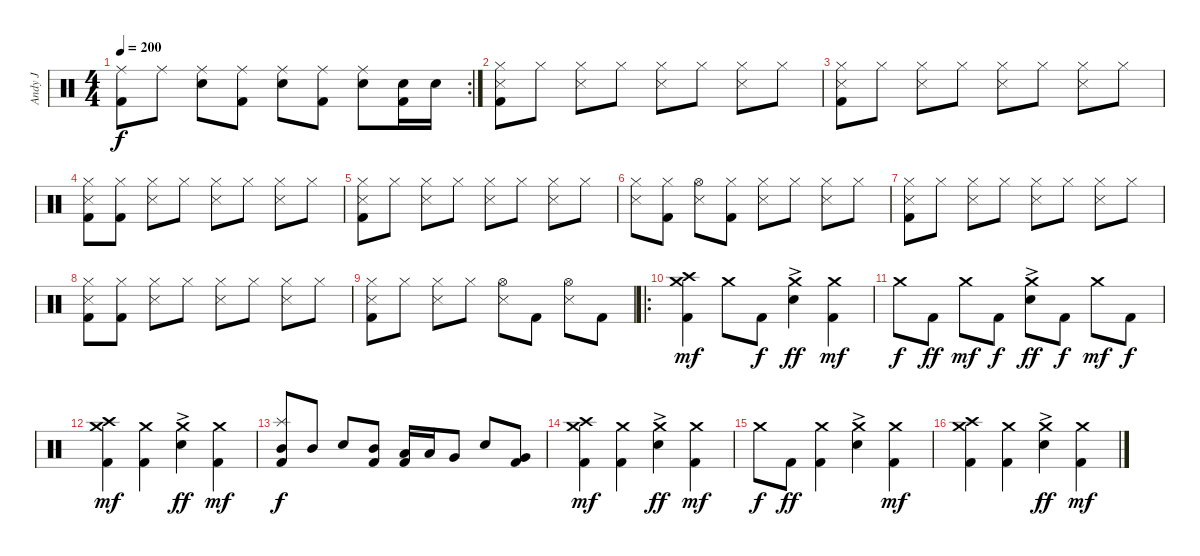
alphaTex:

\track ("Andy J" "Andy J") {instrument percussion}
\staff {score}
\articulation defaults
\rc 2
\ts (4 4)
\tempo 200
\clef neutral
\ks c
("Ride (middle)" "Kick (hit) 2").8{dy f} "Ride (middle)".8 ("Ride (middle)" "Electric Snare (hit)").8 ("Ride (middle)" "Kick (hit) 2").8 ("Ride (middle)" "Electric Snare (hit)").8 ("Ride (middle)" "Kick (hit) 2").8 ("Ride (middle)" "Electric Snare (hit)").8 ("Electric Snare (hit)" "Kick (hit) 2").16 "Electric Snare (hit)".16 |
("Hi-Hat (closed)" "Snare (side stick) 3" "Kick (hit) 2").8 "Hi-Hat (closed)".8 ("Hi-Hat (closed)" "Snare (side stick) 3").8 "Hi-Hat (closed)".8 ("Hi-Hat (closed)" "Snare (side stick) 3").8 "Hi-Hat (closed)".8 ("Hi-Hat (closed)" "Snare (side stick) 3").8 "Hi-Hat (closed)".8 |
("Hi-Hat (closed)" "Snare (side stick) 3" "Kick (hit) 2").8 "Hi-Hat (closed)".8 ("Hi-Hat (closed)" "Snare (side stick) 3").8 "Hi-Hat (closed)".8 ("Hi-Hat (closed)" "Snare (side stick) 3").8 "Hi-Hat (closed)".8 ("Hi-Hat (closed)" "Snare (side stick) 3").8 "Hi-Hat (closed)".8 |
("Hi-Hat (closed)" "Snare (side stick) 3" "Kick (hit) 2").8 ("Hi-Hat (closed)" "Kick (hit) 2").8 ("Hi-Hat (closed)" "Snare (side stick) 3").8 "Hi-Hat (closed)".8 ("Hi-Hat (closed)" "Snare (side stick) 3").8 "Hi-Hat (closed)".8 ("Hi-Hat (closed)" "Snare (side stick) 3").8 "Hi-Hat (closed)".8 |
("Hi-Hat (closed)" "Snare (side stick) 3" "Kick (hit) 2").8 "Hi-Hat (closed)".8 ("Hi-Hat (closed)" "Snare (side stick) 3").8 "Hi-Hat (closed)".8 ("Hi-Hat (closed)" "Snare (side stick) 3").8 "Hi-Hat (closed)".8 ("Hi-Hat (closed)" "Snare (side stick) 3").8 "Hi-Hat (closed)".8 |
("Hi-Hat (closed)" "Snare (side stick) 3").8 ("Hi-Hat (closed)" "Kick (hit) 2").8 ("Hi-Hat (open)" "Snare (side stick) 3").8 ("Hi-Hat (closed)" "Kick (hit) 2").8 ("Hi-Hat (closed)" "Snare (side stick) 3").8 "Hi-Hat (closed)".8 ("Hi-Hat (closed)" "Snare (side stick) 3").8 "Hi-Hat (closed)".8 |
("Hi-Hat (closed)" "Snare (side stick) 3" "Kick (hit) 2").8 "Hi-Hat (closed)".8 ("Hi-Hat (closed)" "Snare (side stick) 3").8 "Hi-Hat (closed)".8 ("Hi-Hat (closed)" "Snare (side stick) 3").8 "Hi-Hat (closed)".8 ("Hi-Hat (closed)" "Snare (side stick) 3").8 "Hi-Hat (closed)".8 |
("Hi-Hat (closed)" "Snare (side stick) 3" "Kick (hit) 2").8 ("Hi-Hat (closed)" "Kick (hit) 2").8 ("Hi-Hat (closed)" "Snare (side stick) 3").8 "Hi-Hat (closed)".8 ("Hi-Hat (closed)" "Snare (side stick) 3").8 "Hi-Hat (closed)".8 ("Hi-Hat (closed)" "Snare (side stick) 3").8 "Hi-Hat (closed)".8 |
("Hi-Hat (closed)" "Snare (side stick) 3" "Kick (hit) 2").8 "Hi-Hat (closed)".8 ("Hi-Hat (closed)" "Snare (side stick) 3").8 "Hi-Hat (closed)".8 ("Hi-Hat (open)" "Snare (side stick) 3").8 "Kick (hit) 2".8 ("Hi-Hat (open)" "Snare (side stick) 3").8 "Kick (hit) 2".8 |
\ro
("Crash high (hit)" "Crash medium (hit)" "Kick (hit) 2").4{dy mf} "Crash medium (hit)".8 "Kick (hit) 2".8{dy f} ("Crash medium (hit)" "Electric Snare (hit)"{ac}).4{dy ff} ("Crash medium (hit)" "Kick (hit) 2").4{dy mf} |
"Crash medium (hit)".8{dy f} "Kick (hit) 2".8{dy ff} "Crash medium (hit)".8{dy mf} "Kick (hit) 2".8{dy f} ("Crash medium (hit)" "Electric Snare (hit)"{ac}).8{dy ff} "Kick (hit) 2".8{dy f} "Crash medium (hit)".8{dy mf} "Kick (hit) 2".8{dy f} |
("Crash high (hit)" "Crash medium (hit)" "Kick (hit) 2").4{dy mf} ("Crash medium (hit)" "Kick (hit) 2").4 ("Crash medium (hit)" "Electric Snare (hit)"{ac}).4{dy ff} ("Crash medium (hit)" "Kick (hit) 2").4{dy mf} |
("Splash (hit)" "Mid Tom (hit)" "Kick (hit) 2").8{dy f} "Mid Tom (hit)".8 "Electric Snare (hit)".8 ("Mid Tom (hit)" "Kick (hit) 2").8 ("Low Tom (hit)" "Kick (hit) 2").16 "Low Tom (hit)".16 "Very Low Tom (hit)".8 "Electric Snare (hit)".8 ("Very Low Tom (hit)" "Kick (hit) 2").8 |
("Crash high (hit)" "Crash medium (hit)" "Kick (hit) 2").4{dy mf} ("Crash medium (hit)" "Kick (hit) 2").4 ("Crash medium (hit)" "Electric Snare (hit)"{ac}).4{dy ff} ("Crash medium (hit)" "Kick (hit) 2").4{dy mf} |
"Crash medium (hit)".8{dy f} "Kick (hit) 2".8{dy ff} ("Crash medium (hit)" "Kick (hit) 2").4 ("Crash medium (hit)" "Electric Snare (hit)"{ac}).4 ("Crash medium (hit)" "Kick (hit) 2").4{dy mf} |
("Crash high (hit)" "Crash medium (hit)" "Kick (hit) 2").4 ("Crash medium (hit)" "Kick (hit) 2").4 ("Crash medium (hit)" "Electric Snare (hit)"{ac}).4{dy ff} ("Crash medium (hit)" "Kick (hit) 2").4{dy mf}
